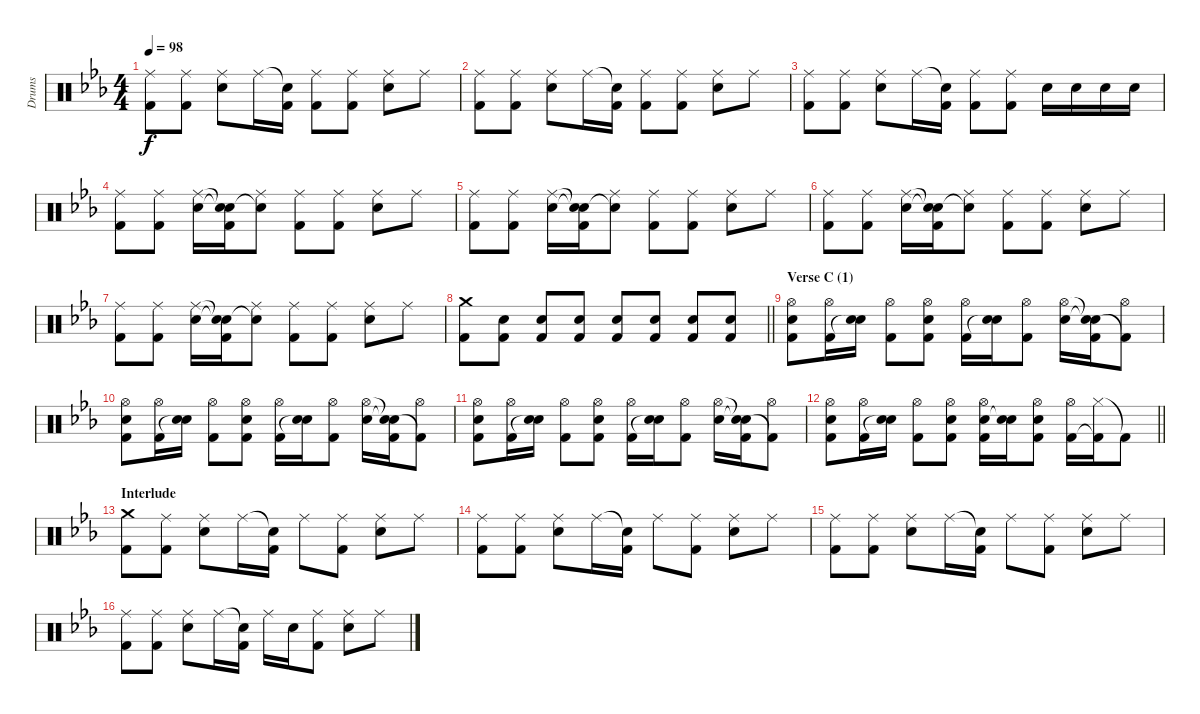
\track ("Drums" "Drums") {instrument percussion}
\staff {score}
\articulation defaults
\ts (4 4)
\tempo 98
\clef neutral
\ks cminor
("Ride (middle)" "Kick (hit) 2").8{dy f} ("Ride (middle)" "Kick (hit) 2").8 ("Ride (middle)" "Electric Snare (hit)").8 "Ride (middle)".16 ("Snare (hit)"{t} "Kick (hit) 2").16 ("Ride (middle)" "Kick (hit) 2").8 ("Ride (middle)" "Kick (hit) 2").8 ("Ride (middle)" "Electric Snare (hit)").8 "Ride (middle)".8 |
("Ride (middle)" "Kick (hit) 2").8 ("Ride (middle)" "Kick (hit) 2").8 ("Ride (middle)" "Electric Snare (hit)").8 "Ride (middle)".16 ("Snare (hit)"{t} "Kick (hit) 2").16 ("Ride (middle)" "Kick (hit) 2").8 ("Ride (middle)" "Kick (hit) 2").8 ("Ride (middle)" "Electric Snare (hit)").8 "Ride (middle)".8 |
("Ride (middle)" "Kick (hit) 2").8 ("Ride (middle)" "Kick (hit) 2").8 ("Ride (middle)" "Electric Snare (hit)").8 "Ride (middle)".16 ("Snare (hit)"{t} "Kick (hit) 2").16 ("Ride (middle)" "Kick (hit) 2").8 ("Ride (middle)" "Kick (hit) 2").8 "Electric Snare (hit)".16 "Electric Snare (hit)".16 "Electric Snare (hit)".16 "Electric Snare (hit)".16 |
("Ride (middle)" "Kick (hit) 2").8 ("Ride (middle)" "Kick (hit) 2").8 ("Ride (middle)" "Electric Snare (hit)").16 ("Snare (hit)"{t} "Snare (hit)"{t} "Kick (hit) 2").16 ("Ride (middle)" "Snare (hit)"{t}).8 ("Ride (middle)" "Kick (hit) 2").8 ("Ride (middle)" "Kick (hit) 2").8 ("Ride (middle)" "Electric Snare (hit)").8 "Ride (middle)".8 |
("Ride (middle)" "Kick (hit) 2").8 ("Ride (middle)" "Kick (hit) 2").8 ("Ride (middle)" "Electric Snare (hit)").16 ("Snare (hit)"{t} "Snare (hit)"{t} "Kick (hit) 2").16 ("Ride (middle)" "Snare (hit)"{t}).8 ("Ride (middle)" "Kick (hit) 2").8 ("Ride (middle)" "Kick (hit) 2").8 ("Ride (middle)" "Electric Snare (hit)").8 "Ride (middle)".8 |
("Ride (middle)" "Kick (hit) 2").8 ("Ride (middle)" "Kick (hit) 2").8 ("Ride (middle)" "Electric Snare (hit)").16 ("Snare (hit)"{t} "Snare (hit)"{t} "Kick (hit) 2").16 ("Ride (middle)" "Snare (hit)"{t}).8 ("Ride (middle)" "Kick (hit) 2").8 ("Ride (middle)" "Kick (hit) 2").8 ("Ride (middle)" "Electric Snare (hit)").8 "Ride (middle)".8 |
("Ride (middle)" "Kick (hit) 2").8 ("Ride (middle)" "Kick (hit) 2").8 ("Ride (middle)" "Electric Snare (hit)").16 ("Snare (hit)"{t} "Snare (hit)"{t} "Kick (hit) 2").16 ("Ride (middle)" "Snare (hit)"{t}).8 ("Ride (middle)" "Kick (hit) 2").8 ("Ride (middle)" "Kick (hit) 2").8 ("Ride (middle)" "Electric Snare (hit)").8 "Ride (middle)".8 |
\barLineRight lightlight
("Crash medium (hit)" "Kick (hit) 2").8 ("Electric Snare (hit)" "Kick (hit) 2").8 ("Electric Snare (hit)" "Kick (hit) 2").8 ("Electric Snare (hit)" "Kick (hit) 2").8 ("Electric Snare (hit)" "Kick (hit) 2").8 ("Electric Snare (hit)" "Kick (hit) 2").8 ("Electric Snare (hit)" "Kick (hit) 2").8 ("Electric Snare (hit)" "Kick (hit) 2").8 |
\section ("" "Verse C (1)")
("Hi-Hat (open)" "Electric Snare (hit)" "Kick (hit) 2").8 ("Hi-Hat (open)" "Kick (hit) 2").16 ("Electric Snare (hit)" "Snare (hit)"{t}).16 ("Hi-Hat (open)" "Kick (hit) 2").8 ("Hi-Hat (open)" "Electric Snare (hit)" "Kick (hit) 2").8 ("Hi-Hat (open)" "Kick (hit) 2").16 ("Electric Snare (hit)" "Snare (hit)"{t}).16 ("Hi-Hat (open)" "Kick (hit) 2").8 ("Hi-Hat (open)" "Electric Snare (hit)").16 ("Snare (hit)"{t} "Snare (hit)"{t} "Kick (hit) 2").16 ("Hi-Hat (open)" "Kick (hit) 2"{t}).8 |
("Hi-Hat (open)" "Electric Snare (hit)" "Kick (hit) 2").8 ("Hi-Hat (open)" "Kick (hit) 2").16 ("Electric Snare (hit)" "Snare (hit)"{t}).16 ("Hi-Hat (open)" "Kick (hit) 2").8 ("Hi-Hat (open)" "Electric Snare (hit)" "Kick (hit) 2").8 ("Hi-Hat (open)" "Kick (hit) 2").16 ("Electric Snare (hit)" "Snare (hit)"{t}).16 ("Hi-Hat (open)" "Kick (hit) 2").8 ("Hi-Hat (open)" "Electric Snare (hit)").16 ("Snare (hit)"{t} "Snare (hit)"{t} "Kick (hit) 2").16 ("Hi-Hat (open)" "Kick (hit) 2"{t}).8 |
("Hi-Hat (open)" "Electric Snare (hit)" "Kick (hit) 2").8 ("Hi-Hat (open)" "Kick (hit) 2").16 ("Electric Snare (hit)" "Snare (hit)"{t}).16 ("Hi-Hat (open)" "Kick (hit) 2").8 ("Hi-Hat (open)" "Electric Snare (hit)" "Kick (hit) 2").8 ("Hi-Hat (open)" "Kick (hit) 2").16 ("Electric Snare (hit)" "Snare (hit)"{t}).16 ("Hi-Hat (open)" "Kick (hit) 2").8 ("Hi-Hat (open)" "Electric Snare (hit)").16 ("Snare (hit)"{t} "Snare (hit)"{t} "Kick (hit) 2").16 ("Hi-Hat (open)" "Kick (hit) 2"{t}).8 |
\barLineRight lightlight
("Hi-Hat (open)" "Electric Snare (hit)" "Kick (hit) 2").8 ("Hi-Hat (open)" "Kick (hit) 2").16 ("Electric Snare (hit)" "Snare (hit)"{t}).16 ("Hi-Hat (open)" "Kick (hit) 2").8 ("Hi-Hat (open)" "Electric Snare (hit)" "Kick (hit) 2").8 ("Hi-Hat (open)" "Electric Snare (hit)" "Kick (hit) 2").16 ("Electric Snare (hit)" "Snare (hit)"{t}).16 ("Hi-Hat (open)" "Electric Snare (hit)" "Kick (hit) 2").8 ("Hi-Hat (open)" "Kick (hit) 2").16 ("Hi-Hat (closed)" "Kick (hit) 2"{t}).16 "Kick (hit) 2"{t}.8 |
\section ("" "Interlude")
("Crash medium (hit)" "Kick (hit) 2").8 ("Ride (middle)" "Kick (hit) 2").8 ("Ride (middle)" "Electric Snare (hit)").8 "Ride (middle)".16 ("Snare (hit)"{t} "Kick (hit) 2").16 "Ride (middle)".8 ("Ride (middle)" "Kick (hit) 2").8 ("Ride (middle)" "Electric Snare (hit)").8 "Ride (middle)".8 |
("Ride (middle)" "Kick (hit) 2").8 ("Ride (middle)" "Kick (hit) 2").8 ("Ride (middle)" "Electric Snare (hit)").8 "Ride (middle)".16 ("Snare (hit)"{t} "Kick (hit) 2").16 "Ride (middle)".8 ("Ride (middle)" "Kick (hit) 2").8 ("Ride (middle)" "Electric Snare (hit)").8 "Ride (middle)".8 |
("Ride (middle)" "Kick (hit) 2").8 ("Ride (middle)" "Kick (hit) 2").8 ("Ride (middle)" "Electric Snare (hit)").8 "Ride (middle)".16 ("Snare (hit)"{t} "Kick (hit) 2").16 "Ride (middle)".8 ("Ride (middle)" "Kick (hit) 2").8 ("Ride (middle)" "Electric Snare (hit)").8 "Ride (middle)".8 |
("Ride (middle)" "Kick (hit) 2").8 ("Ride (middle)" "Kick (hit) 2").8 ("Ride (middle)" "Electric Snare (hit)").8 "Ride (middle)".16 ("Snare (hit)"{t} "Kick (hit) 2").16 "Ride (middle)".16 "Electric Snare (hit)".16 ("Ride (middle)" "Kick (hit) 2").8 ("Ride (middle)" "Electric Snare (hit)").8 "Ride (middle)".8
